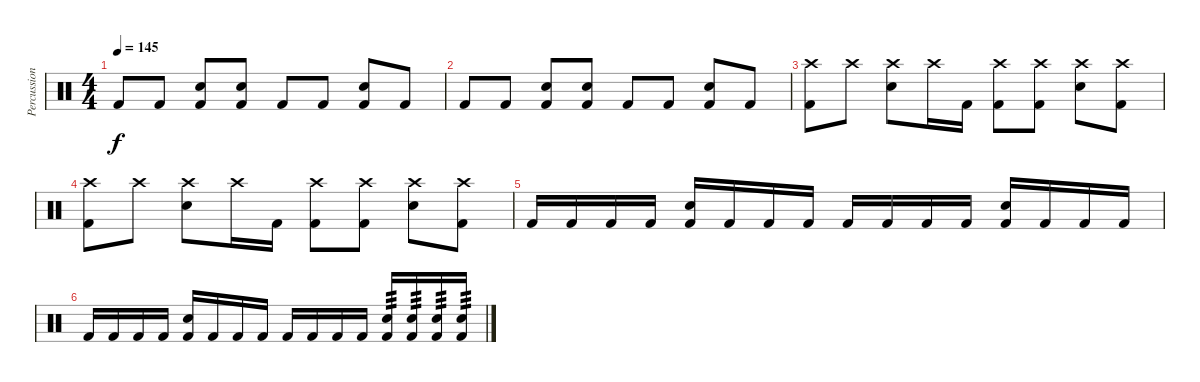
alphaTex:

\track ("Percussion" "Percussion") {instrument percussion}
\staff {score}
\articulation defaults
\ts (4 4)
\tempo 145
\clef neutral
\ks c "Kick (hit) 2".8{dy f} "Kick (hit) 2".8
("Snare (hit) 2" "Kick (hit) 2").8 ("Snare (hit) 2" "Kick (hit) 2").8 "Kick (hit) 2".8 "Kick (hit) 2".8 ("Snare (hit) 2" "Kick (hit) 2").8 "Kick (hit) 2".8 |
"Kick (hit) 2".8 "Kick (hit) 2".8 ("Snare (hit) 2" "Kick (hit) 2").8 ("Snare (hit) 2" "Kick (hit) 2").8 "Kick (hit) 2".8 "Kick (hit) 2".8 ("Snare (hit) 2" "Kick (hit) 2").8 "Kick (hit) 2".8 |
("Crash high (hit)" "Kick (hit) 2").8 "Crash high (hit)".8 ("Snare (hit) 2" "Crash high (hit)").8 "Crash high (hit)".16 "Kick (hit) 2".16 ("Crash high (hit)" "Kick (hit) 2").8 ("Crash high (hit)" "Kick (hit) 2").8 ("Snare (hit) 2" "Crash high (hit)").8 ("Crash high (hit)" "Kick (hit) 2").8 |
("Crash high (hit)" "Kick (hit) 2").8 "Crash high (hit)".8 ("Snare (hit) 2" "Crash high (hit)").8 "Crash high (hit)".16 "Kick (hit) 2".16 ("Crash high (hit)" "Kick (hit) 2").8 ("Crash high (hit)" "Kick (hit) 2").8 ("Snare (hit) 2" "Crash high (hit)").8 ("Crash high (hit)" "Kick (hit) 2").8 |
"Kick (hit) 2".16 "Kick (hit) 2".16 "Kick (hit) 2".16 "Kick (hit) 2".16 ("Snare (hit) 2" "Kick (hit) 2").16 "Kick (hit) 2".16 "Kick (hit) 2".16 "Kick (hit) 2".16 "Kick (hit) 2".16 "Kick (hit) 2".16 "Kick (hit) 2".16 "Kick (hit) 2".16 ("Snare (hit) 2" "Kick (hit) 2").16 "Kick (hit) 2".16 "Kick (hit) 2".16 "Kick (hit) 2".16 |
"Kick (hit) 2".16 "Kick (hit) 2".16 "Kick (hit) 2".16 "Kick (hit) 2".16 ("Snare (hit) 2" "Kick (hit) 2").16 "Kick (hit) 2".16 "Kick (hit) 2".16 "Kick (hit) 2".16 "Kick (hit) 2".16 "Kick (hit) 2".16 "Kick (hit) 2".16 "Kick (hit) 2".16 ("Snare (hit) 2" "Kick (hit) 2").16{tp 3} ("Snare (hit) 2" "Kick (hit) 2").16{tp 3} ("Snare (hit) 2" "Kick (hit) 2").16{tp 3} ("Snare (hit) 2" "Kick (hit) 2").16{tp 3}
